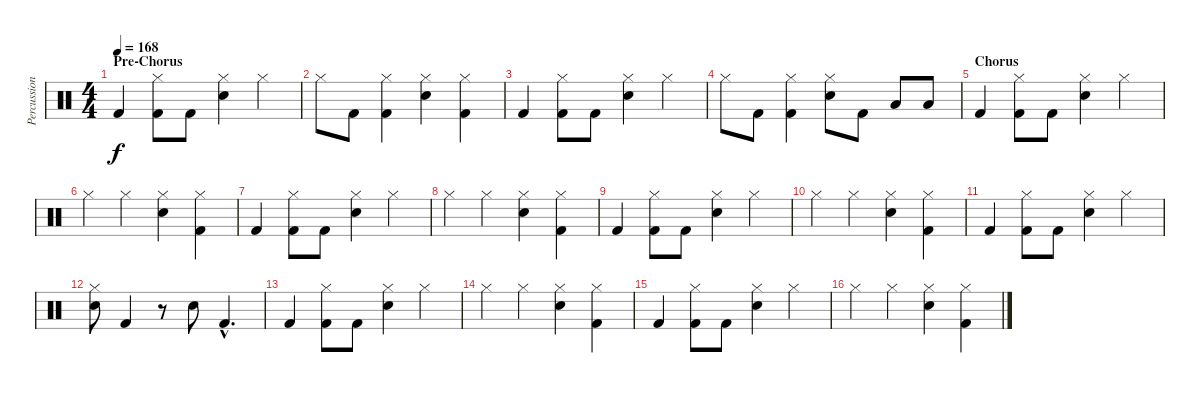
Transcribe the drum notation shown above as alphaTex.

\track ("Percussion" "Percussion") {instrument percussion}
\staff {score}
\articulation defaults
\ts (4 4)
\section ("" "Pre-Chorus")
\tempo 168
\clef neutral
\ks c "Kick (hit) 2".4{dy f}
("Hi-Hat (closed)" "Kick (hit) 2").8 "Kick (hit) 2".8 ("Hi-Hat (closed)" "Snare (hit) 2").4 "Hi-Hat (closed)".4 |
"Hi-Hat (closed)".8 "Kick (hit) 2".8 ("Hi-Hat (closed)" "Kick (hit) 2").4 ("Hi-Hat (closed)" "Snare (hit) 2").4 ("Hi-Hat (closed)" "Kick (hit) 2").4 |
"Kick (hit) 2".4 ("Hi-Hat (closed)" "Kick (hit) 2").8 "Kick (hit) 2".8 ("Hi-Hat (closed)" "Snare (hit) 2").4 "Hi-Hat (closed)".4 |
"Hi-Hat (closed)".8 "Kick (hit) 2".8 ("Hi-Hat (closed)" "Kick (hit) 2").4 ("Hi-Hat (closed)" "Snare (hit) 2").8 "Kick (hit) 2".8 "Low Tom (hit)".8 "Low Tom (hit)".8 |
\section ("" "Chorus")
"Kick (hit) 2".4 ("Hi-Hat (closed)" "Kick (hit) 2").8 "Kick (hit) 2".8 ("Hi-Hat (closed)" "Snare (hit) 2").4 "Hi-Hat (closed)".4 |
"Hi-Hat (closed)".4 "Hi-Hat (closed)".4 ("Hi-Hat (closed)" "Snare (hit) 2").4 ("Hi-Hat (closed)" "Kick (hit) 2").4 |
"Kick (hit) 2".4 ("Hi-Hat (closed)" "Kick (hit) 2").8 "Kick (hit) 2".8 ("Hi-Hat (closed)" "Snare (hit) 2").4 "Hi-Hat (closed)".4 |
"Hi-Hat (closed)".4 "Hi-Hat (closed)".4 ("Hi-Hat (closed)" "Snare (hit) 2").4 ("Hi-Hat (closed)" "Kick (hit) 2").4 |
"Kick (hit) 2".4 ("Hi-Hat (closed)" "Kick (hit) 2").8 "Kick (hit) 2".8 ("Hi-Hat (closed)" "Snare (hit) 2").4 "Hi-Hat (closed)".4 |
"Hi-Hat (closed)".4 "Hi-Hat (closed)".4 ("Hi-Hat (closed)" "Snare (hit) 2").4 ("Hi-Hat (closed)" "Kick (hit) 2").4 |
"Kick (hit) 2".4 ("Hi-Hat (closed)" "Kick (hit) 2").8 "Kick (hit) 2".8 ("Hi-Hat (closed)" "Snare (hit) 2").4 "Hi-Hat (closed)".4 |
("Hi-Hat (closed)" "Snare (hit) 2").8 "Kick (hit) 2".4 r.8 "Snare (hit) 2".8 "Kick (hit) 2"{hac}.4{d} |
"Kick (hit) 2".4 ("Hi-Hat (closed)" "Kick (hit) 2").8 "Kick (hit) 2".8 ("Hi-Hat (closed)" "Snare (hit) 2").4 "Hi-Hat (closed)".4 |
"Hi-Hat (closed)".4 "Hi-Hat (closed)".4 ("Hi-Hat (closed)" "Snare (hit) 2").4 ("Hi-Hat (closed)" "Kick (hit) 2").4 |
"Kick (hit) 2".4 ("Hi-Hat (closed)" "Kick (hit) 2").8 "Kick (hit) 2".8 ("Hi-Hat (closed)" "Snare (hit) 2").4 "Hi-Hat (closed)".4 |
"Hi-Hat (closed)".4 "Hi-Hat (closed)".4 ("Hi-Hat (closed)" "Snare (hit) 2").4 ("Hi-Hat (closed)" "Kick (hit) 2").4
